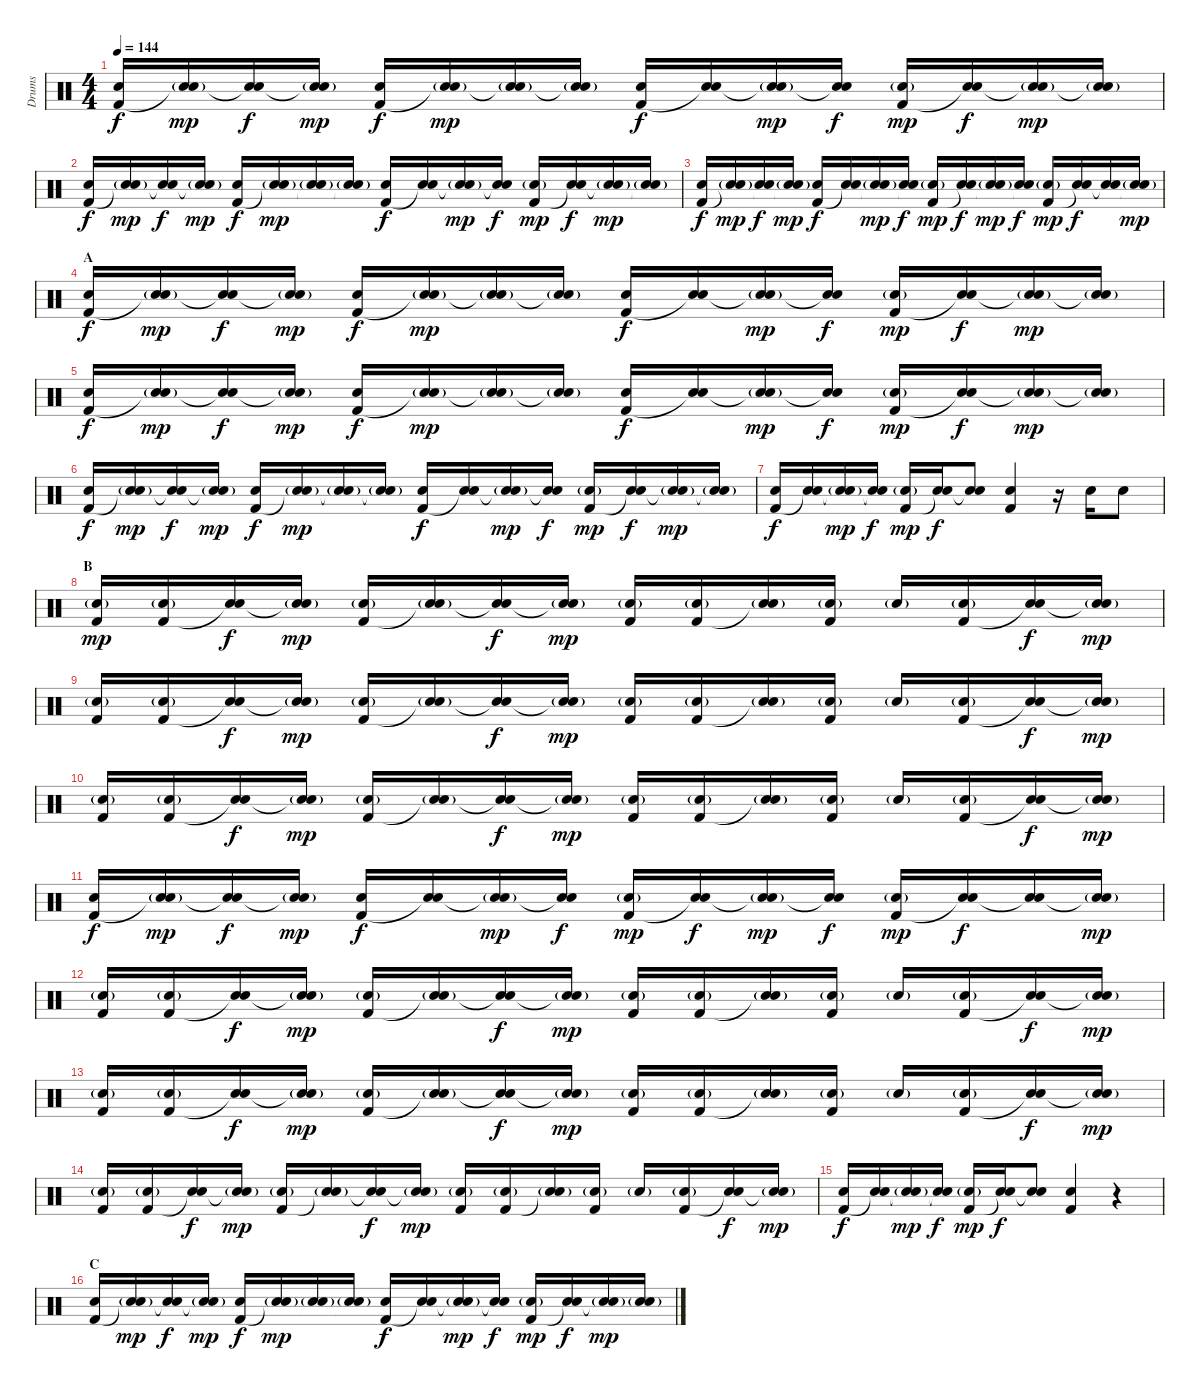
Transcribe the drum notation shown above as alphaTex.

\track ("Drums" "Drums") {instrument percussion}
\staff {score}
\articulation defaults
\ts (4 4)
\tempo 144
\clef neutral
\ks c
("Snare (hit) 2" "Kick (hit) 2").16{dy f} ("Snare (hit) 2"{g} "Snare (hit)"{t}).16{dy mp} ("Snare (hit) 2" "Snare (hit)"{t}).16{dy f} ("Snare (hit) 2"{g} "Snare (hit)"{t}).16{dy mp} ("Snare (hit) 2" "Kick (hit) 2").16{dy f} ("Snare (hit) 2"{g} "Snare (hit)"{t}).16{dy mp} ("Snare (hit) 2"{g} "Snare (hit)"{t}).16 ("Snare (hit) 2"{g} "Snare (hit)"{t}).16 ("Snare (hit) 2" "Kick (hit) 2").16{dy f} ("Snare (hit) 2" "Snare (hit)"{t}).16 ("Snare (hit) 2"{g} "Snare (hit)"{t}).16{dy mp} ("Snare (hit) 2" "Snare (hit)"{t}).16{dy f} ("Snare (hit) 2"{g} "Kick (hit) 2").16{dy mp} ("Snare (hit) 2" "Snare (hit)"{t}).16{dy f} ("Snare (hit) 2"{g} "Snare (hit)"{t}).16{dy mp} ("Snare (hit) 2"{g} "Snare (hit)"{t}).16 |
("Snare (hit) 2" "Kick (hit) 2").16{dy f} ("Snare (hit) 2"{g} "Snare (hit)"{t}).16{dy mp} ("Snare (hit) 2" "Snare (hit)"{t}).16{dy f} ("Snare (hit) 2"{g} "Snare (hit)"{t}).16{dy mp} ("Snare (hit) 2" "Kick (hit) 2").16{dy f} ("Snare (hit) 2"{g} "Snare (hit)"{t}).16{dy mp} ("Snare (hit) 2"{g} "Snare (hit)"{t}).16 ("Snare (hit) 2"{g} "Snare (hit)"{t}).16 ("Snare (hit) 2" "Kick (hit) 2").16{dy f} ("Snare (hit) 2" "Snare (hit)"{t}).16 ("Snare (hit) 2"{g} "Snare (hit)"{t}).16{dy mp} ("Snare (hit) 2" "Snare (hit)"{t}).16{dy f} ("Snare (hit) 2"{g} "Kick (hit) 2").16{dy mp} ("Snare (hit) 2" "Snare (hit)"{t}).16{dy f} ("Snare (hit) 2"{g} "Snare (hit)"{t}).16{dy mp} ("Snare (hit) 2"{g} "Snare (hit)"{t}).16 |
("Snare (hit) 2" "Kick (hit) 2").16{dy f} ("Snare (hit) 2"{g} "Snare (hit)"{t}).16{dy mp} ("Snare (hit) 2" "Snare (hit)"{t}).16{dy f} ("Snare (hit) 2"{g} "Snare (hit)"{t}).16{dy mp} ("Snare (hit) 2" "Kick (hit) 2").16{dy f} ("Snare (hit) 2" "Snare (hit)"{t}).16 ("Snare (hit) 2"{g} "Snare (hit)"{t}).16{dy mp} ("Snare (hit) 2" "Snare (hit)"{t}).16{dy f} ("Snare (hit) 2"{g} "Kick (hit) 2").16{dy mp} ("Snare (hit) 2" "Snare (hit)"{t}).16{dy f} ("Snare (hit) 2"{g} "Snare (hit)"{t}).16{dy mp} ("Snare (hit) 2" "Snare (hit)"{t}).16{dy f} ("Snare (hit) 2"{g} "Kick (hit) 2").16{dy mp} ("Snare (hit) 2" "Snare (hit)"{t}).16{dy f} ("Snare (hit) 2" "Snare (hit)"{t}).16 ("Snare (hit) 2"{g} "Snare (hit)"{t}).16{dy mp} |
\section ("" "A")
("Snare (hit) 2" "Kick (hit) 2").16{dy f} ("Snare (hit) 2"{g} "Snare (hit)"{t}).16{dy mp} ("Snare (hit) 2" "Snare (hit)"{t}).16{dy f} ("Snare (hit) 2"{g} "Snare (hit)"{t}).16{dy mp} ("Snare (hit) 2" "Kick (hit) 2").16{dy f} ("Snare (hit) 2"{g} "Snare (hit)"{t}).16{dy mp} ("Snare (hit) 2"{g} "Snare (hit)"{t}).16 ("Snare (hit) 2"{g} "Snare (hit)"{t}).16 ("Snare (hit) 2" "Kick (hit) 2").16{dy f} ("Snare (hit) 2" "Snare (hit)"{t}).16 ("Snare (hit) 2"{g} "Snare (hit)"{t}).16{dy mp} ("Snare (hit) 2" "Snare (hit)"{t}).16{dy f} ("Snare (hit) 2"{g} "Kick (hit) 2").16{dy mp} ("Snare (hit) 2" "Snare (hit)"{t}).16{dy f} ("Snare (hit) 2"{g} "Snare (hit)"{t}).16{dy mp} ("Snare (hit) 2"{g} "Snare (hit)"{t}).16 |
("Snare (hit) 2" "Kick (hit) 2").16{dy f} ("Snare (hit) 2"{g} "Snare (hit)"{t}).16{dy mp} ("Snare (hit) 2" "Snare (hit)"{t}).16{dy f} ("Snare (hit) 2"{g} "Snare (hit)"{t}).16{dy mp} ("Snare (hit) 2" "Kick (hit) 2").16{dy f} ("Snare (hit) 2"{g} "Snare (hit)"{t}).16{dy mp} ("Snare (hit) 2"{g} "Snare (hit)"{t}).16 ("Snare (hit) 2"{g} "Snare (hit)"{t}).16 ("Snare (hit) 2" "Kick (hit) 2").16{dy f} ("Snare (hit) 2" "Snare (hit)"{t}).16 ("Snare (hit) 2"{g} "Snare (hit)"{t}).16{dy mp} ("Snare (hit) 2" "Snare (hit)"{t}).16{dy f} ("Snare (hit) 2"{g} "Kick (hit) 2").16{dy mp} ("Snare (hit) 2" "Snare (hit)"{t}).16{dy f} ("Snare (hit) 2"{g} "Snare (hit)"{t}).16{dy mp} ("Snare (hit) 2"{g} "Snare (hit)"{t}).16 |
("Snare (hit) 2" "Kick (hit) 2").16{dy f} ("Snare (hit) 2"{g} "Snare (hit)"{t}).16{dy mp} ("Snare (hit) 2" "Snare (hit)"{t}).16{dy f} ("Snare (hit) 2"{g} "Snare (hit)"{t}).16{dy mp} ("Snare (hit) 2" "Kick (hit) 2").16{dy f} ("Snare (hit) 2"{g} "Snare (hit)"{t}).16{dy mp} ("Snare (hit) 2"{g} "Snare (hit)"{t}).16 ("Snare (hit) 2"{g} "Snare (hit)"{t}).16 ("Snare (hit) 2" "Kick (hit) 2").16{dy f} ("Snare (hit) 2" "Snare (hit)"{t}).16 ("Snare (hit) 2"{g} "Snare (hit)"{t}).16{dy mp} ("Snare (hit) 2" "Snare (hit)"{t}).16{dy f} ("Snare (hit) 2"{g} "Kick (hit) 2").16{dy mp} ("Snare (hit) 2" "Snare (hit)"{t}).16{dy f} ("Snare (hit) 2"{g} "Snare (hit)"{t}).16{dy mp} ("Snare (hit) 2"{g} "Snare (hit)"{t}).16 |
("Snare (hit) 2" "Kick (hit) 2").16{dy f} ("Snare (hit) 2" "Snare (hit)"{t}).16 ("Snare (hit) 2"{g} "Snare (hit)"{t}).16{dy mp} ("Snare (hit) 2" "Snare (hit)"{t}).16{dy f} ("Snare (hit) 2"{g} "Kick (hit) 2").16{dy mp} ("Snare (hit) 2" "Snare (hit)"{t}).16{dy f} ("Snare (hit) 2" "Snare (hit)"{t}).8 ("Snare (hit) 2" "Kick (hit) 2").4 r.16 "Snare (hit) 2".16 "Snare (hit) 2".8 |
\section ("" "B")
("Snare (hit) 2"{g} "Kick (hit) 2").16{dy mp} ("Snare (hit) 2"{g} "Kick (hit) 2").16 ("Snare (hit) 2" "Snare (hit)"{t}).16{dy f} ("Snare (hit) 2"{g} "Snare (hit)"{t}).16{dy mp} ("Snare (hit) 2"{g} "Kick (hit) 2").16 ("Snare (hit) 2"{g} "Snare (hit)"{t}).16 ("Snare (hit) 2" "Snare (hit)"{t}).16{dy f} ("Snare (hit) 2"{g} "Snare (hit)"{t}).16{dy mp} ("Snare (hit) 2"{g} "Kick (hit) 2").16 ("Snare (hit) 2"{g} "Kick (hit) 2").16 ("Snare (hit) 2"{g} "Snare (hit)"{t}).16 ("Snare (hit) 2"{g} "Kick (hit) 2").16 "Snare (hit) 2"{g}.16 ("Snare (hit) 2"{g} "Kick (hit) 2").16 ("Snare (hit) 2" "Snare (hit)"{t}).16{dy f} ("Snare (hit) 2"{g} "Snare (hit)"{t}).16{dy mp} |
("Snare (hit) 2"{g} "Kick (hit) 2").16 ("Snare (hit) 2"{g} "Kick (hit) 2").16 ("Snare (hit) 2" "Snare (hit)"{t}).16{dy f} ("Snare (hit) 2"{g} "Snare (hit)"{t}).16{dy mp} ("Snare (hit) 2"{g} "Kick (hit) 2").16 ("Snare (hit) 2"{g} "Snare (hit)"{t}).16 ("Snare (hit) 2" "Snare (hit)"{t}).16{dy f} ("Snare (hit) 2"{g} "Snare (hit)"{t}).16{dy mp} ("Snare (hit) 2"{g} "Kick (hit) 2").16 ("Snare (hit) 2"{g} "Kick (hit) 2").16 ("Snare (hit) 2"{g} "Snare (hit)"{t}).16 ("Snare (hit) 2"{g} "Kick (hit) 2").16 "Snare (hit) 2"{g}.16 ("Snare (hit) 2"{g} "Kick (hit) 2").16 ("Snare (hit) 2" "Snare (hit)"{t}).16{dy f} ("Snare (hit) 2"{g} "Snare (hit)"{t}).16{dy mp} |
("Snare (hit) 2"{g} "Kick (hit) 2").16 ("Snare (hit) 2"{g} "Kick (hit) 2").16 ("Snare (hit) 2" "Snare (hit)"{t}).16{dy f} ("Snare (hit) 2"{g} "Snare (hit)"{t}).16{dy mp} ("Snare (hit) 2"{g} "Kick (hit) 2").16 ("Snare (hit) 2"{g} "Snare (hit)"{t}).16 ("Snare (hit) 2" "Snare (hit)"{t}).16{dy f} ("Snare (hit) 2"{g} "Snare (hit)"{t}).16{dy mp} ("Snare (hit) 2"{g} "Kick (hit) 2").16 ("Snare (hit) 2"{g} "Kick (hit) 2").16 ("Snare (hit) 2"{g} "Snare (hit)"{t}).16 ("Snare (hit) 2"{g} "Kick (hit) 2").16 "Snare (hit) 2"{g}.16 ("Snare (hit) 2"{g} "Kick (hit) 2").16 ("Snare (hit) 2" "Snare (hit)"{t}).16{dy f} ("Snare (hit) 2"{g} "Snare (hit)"{t}).16{dy mp} |
("Snare (hit) 2" "Kick (hit) 2").16{dy f} ("Snare (hit) 2"{g} "Snare (hit)"{t}).16{dy mp} ("Snare (hit) 2" "Snare (hit)"{t}).16{dy f} ("Snare (hit) 2"{g} "Snare (hit)"{t}).16{dy mp} ("Snare (hit) 2" "Kick (hit) 2").16{dy f} ("Snare (hit) 2" "Snare (hit)"{t}).16 ("Snare (hit) 2"{g} "Snare (hit)"{t}).16{dy mp} ("Snare (hit) 2" "Snare (hit)"{t}).16{dy f} ("Snare (hit) 2"{g} "Kick (hit) 2").16{dy mp} ("Snare (hit) 2" "Snare (hit)"{t}).16{dy f} ("Snare (hit) 2"{g} "Snare (hit)"{t}).16{dy mp} ("Snare (hit) 2" "Snare (hit)"{t}).16{dy f} ("Snare (hit) 2"{g} "Kick (hit) 2").16{dy mp} ("Snare (hit) 2" "Snare (hit)"{t}).16{dy f} ("Snare (hit) 2" "Snare (hit)"{t}).16 ("Snare (hit) 2"{g} "Snare (hit)"{t}).16{dy mp} |
("Snare (hit) 2"{g} "Kick (hit) 2").16 ("Snare (hit) 2"{g} "Kick (hit) 2").16 ("Snare (hit) 2" "Snare (hit)"{t}).16{dy f} ("Snare (hit) 2"{g} "Snare (hit)"{t}).16{dy mp} ("Snare (hit) 2"{g} "Kick (hit) 2").16 ("Snare (hit) 2"{g} "Snare (hit)"{t}).16 ("Snare (hit) 2" "Snare (hit)"{t}).16{dy f} ("Snare (hit) 2"{g} "Snare (hit)"{t}).16{dy mp} ("Snare (hit) 2"{g} "Kick (hit) 2").16 ("Snare (hit) 2"{g} "Kick (hit) 2").16 ("Snare (hit) 2"{g} "Snare (hit)"{t}).16 ("Snare (hit) 2"{g} "Kick (hit) 2").16 "Snare (hit) 2"{g}.16 ("Snare (hit) 2"{g} "Kick (hit) 2").16 ("Snare (hit) 2" "Snare (hit)"{t}).16{dy f} ("Snare (hit) 2"{g} "Snare (hit)"{t}).16{dy mp} |
("Snare (hit) 2"{g} "Kick (hit) 2").16 ("Snare (hit) 2"{g} "Kick (hit) 2").16 ("Snare (hit) 2" "Snare (hit)"{t}).16{dy f} ("Snare (hit) 2"{g} "Snare (hit)"{t}).16{dy mp} ("Snare (hit) 2"{g} "Kick (hit) 2").16 ("Snare (hit) 2"{g} "Snare (hit)"{t}).16 ("Snare (hit) 2" "Snare (hit)"{t}).16{dy f} ("Snare (hit) 2"{g} "Snare (hit)"{t}).16{dy mp} ("Snare (hit) 2"{g} "Kick (hit) 2").16 ("Snare (hit) 2"{g} "Kick (hit) 2").16 ("Snare (hit) 2"{g} "Snare (hit)"{t}).16 ("Snare (hit) 2"{g} "Kick (hit) 2").16 "Snare (hit) 2"{g}.16 ("Snare (hit) 2"{g} "Kick (hit) 2").16 ("Snare (hit) 2" "Snare (hit)"{t}).16{dy f} ("Snare (hit) 2"{g} "Snare (hit)"{t}).16{dy mp} |
("Snare (hit) 2"{g} "Kick (hit) 2").16 ("Snare (hit) 2"{g} "Kick (hit) 2").16 ("Snare (hit) 2" "Snare (hit)"{t}).16{dy f} ("Snare (hit) 2"{g} "Snare (hit)"{t}).16{dy mp} ("Snare (hit) 2"{g} "Kick (hit) 2").16 ("Snare (hit) 2"{g} "Snare (hit)"{t}).16 ("Snare (hit) 2" "Snare (hit)"{t}).16{dy f} ("Snare (hit) 2"{g} "Snare (hit)"{t}).16{dy mp} ("Snare (hit) 2"{g} "Kick (hit) 2").16 ("Snare (hit) 2"{g} "Kick (hit) 2").16 ("Snare (hit) 2"{g} "Snare (hit)"{t}).16 ("Snare (hit) 2"{g} "Kick (hit) 2").16 "Snare (hit) 2"{g}.16 ("Snare (hit) 2"{g} "Kick (hit) 2").16 ("Snare (hit) 2" "Snare (hit)"{t}).16{dy f} ("Snare (hit) 2"{g} "Snare (hit)"{t}).16{dy mp} |
("Snare (hit) 2" "Kick (hit) 2").16{dy f} ("Snare (hit) 2" "Snare (hit)"{t}).16 ("Snare (hit) 2"{g} "Snare (hit)"{t}).16{dy mp} ("Snare (hit) 2" "Snare (hit)"{t}).16{dy f} ("Snare (hit) 2"{g} "Kick (hit) 2").16{dy mp} ("Snare (hit) 2" "Snare (hit)"{t}).16{dy f} ("Snare (hit) 2" "Snare (hit)"{t}).8 ("Snare (hit) 2" "Kick (hit) 2").4 r.4 |
\section ("" "C")
("Snare (hit) 2" "Kick (hit) 2").16 ("Snare (hit) 2"{g} "Snare (hit)"{t}).16{dy mp} ("Snare (hit) 2" "Snare (hit)"{t}).16{dy f} ("Snare (hit) 2"{g} "Snare (hit)"{t}).16{dy mp} ("Snare (hit) 2" "Kick (hit) 2").16{dy f} ("Snare (hit) 2"{g} "Snare (hit)"{t}).16{dy mp} ("Snare (hit) 2"{g} "Snare (hit)"{t}).16 ("Snare (hit) 2"{g} "Snare (hit)"{t}).16 ("Snare (hit) 2" "Kick (hit) 2").16{dy f} ("Snare (hit) 2" "Snare (hit)"{t}).16 ("Snare (hit) 2"{g} "Snare (hit)"{t}).16{dy mp} ("Snare (hit) 2" "Snare (hit)"{t}).16{dy f} ("Snare (hit) 2"{g} "Kick (hit) 2").16{dy mp} ("Snare (hit) 2" "Snare (hit)"{t}).16{dy f} ("Snare (hit) 2"{g} "Snare (hit)"{t}).16{dy mp} ("Snare (hit) 2"{g} "Snare (hit)"{t}).16
